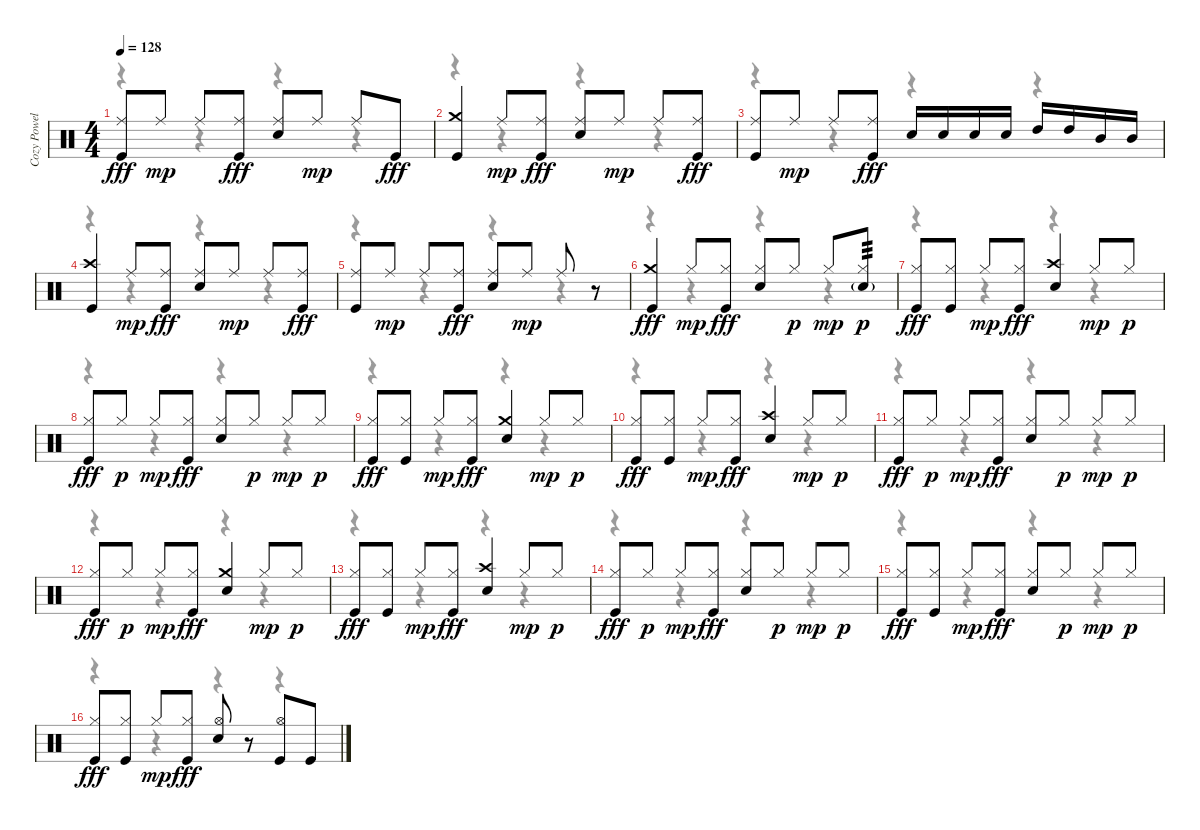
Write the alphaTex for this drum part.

\track ("Cozy Powell - Drums" "Cozy Powel") {instrument percussion}
\staff {score}
\articulation defaults
\voice
\ts (4 4)
\tempo 128
\clef neutral
\ks c
("Kick (hit)" "Ride (middle)").8{dy fff} "Ride (middle)".8{dy mp} "Ride (middle)".8 ("Kick (hit)" "Ride (middle)").8{dy fff} ("Snare (hit) 2" "Ride (middle)").8 "Ride (middle)".8{dy mp} "Ride (middle)".8 "Kick (hit)".8{dy fff} |
("Kick (hit)" "Crash medium (hit)").4 "Ride (middle)".8{dy mp} ("Kick (hit)" "Ride (middle)").8{dy fff} ("Snare (hit) 2" "Ride (middle)").8 "Ride (middle)".8{dy mp} "Ride (middle)".8 ("Kick (hit)" "Ride (middle)").8{dy fff} |
("Kick (hit)" "Ride (middle)").8 "Ride (middle)".8{dy mp} "Ride (middle)".8 ("Kick (hit)" "Ride (middle)").8{dy fff} "Snare (hit) 2".16 "Snare (hit) 2".16 "Snare (hit) 2".16 "Snare (hit) 2".16 "High Tom (hit)".16 "High Tom (hit)".16 "Mid Tom (hit)".16 "Mid Tom (hit)".16 |
("Kick (hit)" "Crash high (hit)").4 "Ride (middle)".8{dy mp} ("Kick (hit)" "Ride (middle)").8{dy fff} ("Snare (hit) 2" "Ride (middle)").8 "Ride (middle)".8{dy mp} "Ride (middle)".8 ("Kick (hit)" "Ride (middle)").8{dy fff} |
("Kick (hit)" "Ride (middle)").8 "Ride (middle)".8{dy mp} "Ride (middle)".8 ("Kick (hit)" "Ride (middle)").8{dy fff} ("Snare (hit) 2" "Ride (middle)").8 "Ride (middle)".8{dy mp} "Ride (middle)".8 r.8 |
("Kick (hit)" "Crash medium (hit)").4{dy fff} "Hi-Hat (closed)".8{dy mp} ("Kick (hit)" "Hi-Hat (closed)").8{dy fff} ("Snare (hit) 2" "Hi-Hat (closed)").8 "Hi-Hat (closed)".8{dy p} "Hi-Hat (closed)".8{dy mp} ("Snare (hit) 2"{g} "Hi-Hat (closed)").8{tp 3 dy p} |
("Kick (hit)" "Hi-Hat (closed)").8{dy fff} ("Kick (hit)" "Hi-Hat (closed)").8 "Hi-Hat (closed)".8{dy mp} ("Kick (hit)" "Hi-Hat (closed)").8{dy fff} ("Snare (hit) 2" "Crash high (hit)").4 "Hi-Hat (closed)".8{dy mp} "Hi-Hat (closed)".8{dy p} |
("Kick (hit)" "Hi-Hat (closed)").8{dy fff} "Hi-Hat (closed)".8{dy p} "Hi-Hat (closed)".8{dy mp} ("Kick (hit)" "Hi-Hat (closed)").8{dy fff} ("Snare (hit) 2" "Hi-Hat (closed)").8 "Hi-Hat (closed)".8{dy p} "Hi-Hat (closed)".8{dy mp} "Hi-Hat (closed)".8{dy p} |
("Kick (hit)" "Hi-Hat (closed)").8{dy fff} ("Kick (hit)" "Hi-Hat (closed)").8 "Hi-Hat (closed)".8{dy mp} ("Kick (hit)" "Hi-Hat (closed)").8{dy fff} ("Snare (hit) 2" "Crash medium (hit)").4 "Hi-Hat (closed)".8{dy mp} "Hi-Hat (closed)".8{dy p} |
("Kick (hit)" "Hi-Hat (closed)").8{dy fff} ("Kick (hit)" "Hi-Hat (closed)").8 "Hi-Hat (closed)".8{dy mp} ("Kick (hit)" "Hi-Hat (closed)").8{dy fff} ("Snare (hit) 2" "Crash high (hit)").4 "Hi-Hat (closed)".8{dy mp} "Hi-Hat (closed)".8{dy p} |
("Kick (hit)" "Hi-Hat (closed)").8{dy fff} "Hi-Hat (closed)".8{dy p} "Hi-Hat (closed)".8{dy mp} ("Kick (hit)" "Hi-Hat (closed)").8{dy fff} ("Snare (hit) 2" "Hi-Hat (closed)").8 "Hi-Hat (closed)".8{dy p} "Hi-Hat (closed)".8{dy mp} "Hi-Hat (closed)".8{dy p} |
("Kick (hit)" "Hi-Hat (closed)").8{dy fff} "Hi-Hat (closed)".8{dy p} "Hi-Hat (closed)".8{dy mp} ("Kick (hit)" "Hi-Hat (closed)").8{dy fff} ("Snare (hit) 2" "Crash medium (hit)").4 "Hi-Hat (closed)".8{dy mp} "Hi-Hat (closed)".8{dy p} |
("Kick (hit)" "Hi-Hat (closed)").8{dy fff} ("Kick (hit)" "Hi-Hat (closed)").8 "Hi-Hat (closed)".8{dy mp} ("Kick (hit)" "Hi-Hat (closed)").8{dy fff} ("Snare (hit) 2" "Crash high (hit)").4 "Hi-Hat (closed)".8{dy mp} "Hi-Hat (closed)".8{dy p} |
("Kick (hit)" "Hi-Hat (closed)").8{dy fff} "Hi-Hat (closed)".8{dy p} "Hi-Hat (closed)".8{dy mp} ("Kick (hit)" "Hi-Hat (closed)").8{dy fff} ("Snare (hit) 2" "Hi-Hat (closed)").8 "Hi-Hat (closed)".8{dy p} "Hi-Hat (closed)".8{dy mp} "Hi-Hat (closed)".8{dy p} |
("Kick (hit)" "Hi-Hat (closed)").8{dy fff} ("Kick (hit)" "Hi-Hat (closed)").8 "Hi-Hat (closed)".8{dy mp} ("Kick (hit)" "Hi-Hat (closed)").8{dy fff} ("Snare (hit) 2" "Hi-Hat (closed)").8 "Hi-Hat (closed)".8{dy p} "Hi-Hat (closed)".8{dy mp} "Hi-Hat (closed)".8{dy p} |
("Kick (hit)" "Hi-Hat (closed)").8{dy fff} ("Kick (hit)" "Hi-Hat (closed)").8 "Hi-Hat (closed)".8{dy mp} ("Kick (hit)" "Hi-Hat (closed)").8{dy fff} ("Snare (hit) 2" "Hi-Hat (open)").8 r.8 ("Kick (hit)" "Hi-Hat (open)").8 "Kick (hit)".8
\voice
\clef neutral
\ottava regular
\simile none
\ks c
r.4{dy f} r.4 r.4 r.4 |
r.4 r.4 r.4 r.4 |
r.4 r.4 r.4 r.4 |
r.4 r.4 r.4 r.4 |
r.4 r.4 r.4 r.4 |
r.4 r.4 r.4 r.4 |
r.4 r.4 r.4 r.4 |
r.4 r.4 r.4 r.4 |
r.4 r.4 r.4 r.4 |
r.4 r.4 r.4 r.4 |
r.4 r.4 r.4 r.4 |
r.4 r.4 r.4 r.4 |
r.4 r.4 r.4 r.4 |
r.4 r.4 r.4 r.4 |
r.4 r.4 r.4 r.4 |
r.4 r.4 r.4 r.4
